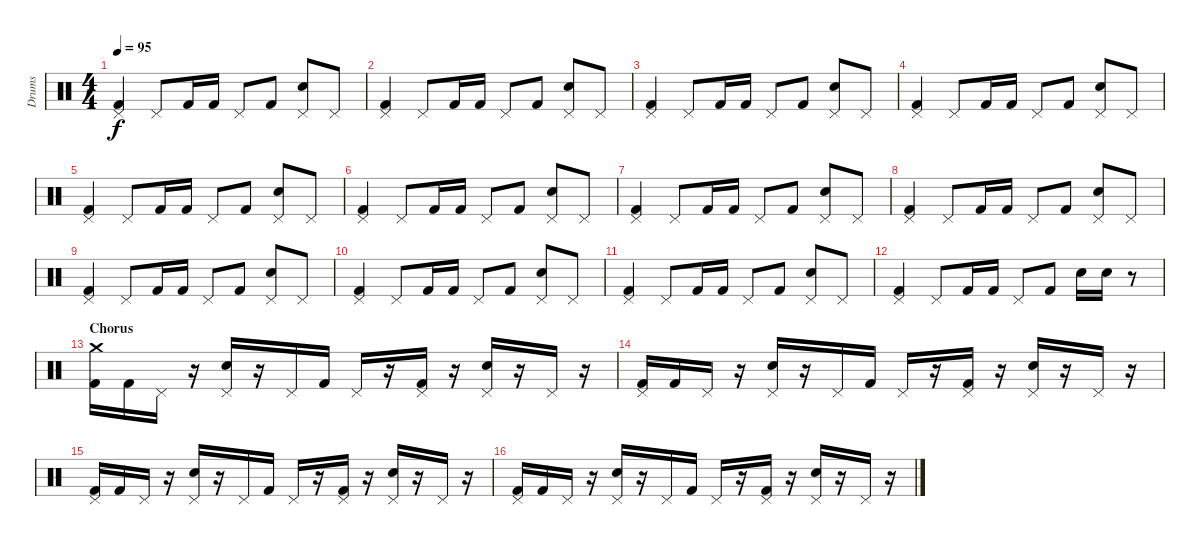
\track ("Drums" "Drums") {instrument percussion}
\staff {score}
\articulation defaults
\ts (4 4)
\tempo 95
\clef neutral
\ks c
("Pedal Hi-Hat (hit)" "Kick (hit) 2").4{dy f} "Pedal Hi-Hat (hit)".8 "Kick (hit) 2".16 "Kick (hit) 2".16 "Pedal Hi-Hat (hit)".8 "Kick (hit) 2".8 ("Pedal Hi-Hat (hit)" "Electric Snare (hit)").8 "Pedal Hi-Hat (hit)".8 |
("Pedal Hi-Hat (hit)" "Kick (hit) 2").4 "Pedal Hi-Hat (hit)".8 "Kick (hit) 2".16 "Kick (hit) 2".16 "Pedal Hi-Hat (hit)".8 "Kick (hit) 2".8 ("Pedal Hi-Hat (hit)" "Electric Snare (hit)").8 "Pedal Hi-Hat (hit)".8 |
("Pedal Hi-Hat (hit)" "Kick (hit) 2").4 "Pedal Hi-Hat (hit)".8 "Kick (hit) 2".16 "Kick (hit) 2".16 "Pedal Hi-Hat (hit)".8 "Kick (hit) 2".8 ("Pedal Hi-Hat (hit)" "Electric Snare (hit)").8 "Pedal Hi-Hat (hit)".8 |
("Pedal Hi-Hat (hit)" "Kick (hit) 2").4 "Pedal Hi-Hat (hit)".8 "Kick (hit) 2".16 "Kick (hit) 2".16 "Pedal Hi-Hat (hit)".8 "Kick (hit) 2".8 ("Pedal Hi-Hat (hit)" "Electric Snare (hit)").8 "Pedal Hi-Hat (hit)".8 |
("Pedal Hi-Hat (hit)" "Kick (hit) 2").4 "Pedal Hi-Hat (hit)".8 "Kick (hit) 2".16 "Kick (hit) 2".16 "Pedal Hi-Hat (hit)".8 "Kick (hit) 2".8 ("Pedal Hi-Hat (hit)" "Electric Snare (hit)").8 "Pedal Hi-Hat (hit)".8 |
("Pedal Hi-Hat (hit)" "Kick (hit) 2").4 "Pedal Hi-Hat (hit)".8 "Kick (hit) 2".16 "Kick (hit) 2".16 "Pedal Hi-Hat (hit)".8 "Kick (hit) 2".8 ("Pedal Hi-Hat (hit)" "Electric Snare (hit)").8 "Pedal Hi-Hat (hit)".8 |
("Pedal Hi-Hat (hit)" "Kick (hit) 2").4 "Pedal Hi-Hat (hit)".8 "Kick (hit) 2".16 "Kick (hit) 2".16 "Pedal Hi-Hat (hit)".8 "Kick (hit) 2".8 ("Pedal Hi-Hat (hit)" "Electric Snare (hit)").8 "Pedal Hi-Hat (hit)".8 |
("Pedal Hi-Hat (hit)" "Kick (hit) 2").4 "Pedal Hi-Hat (hit)".8 "Kick (hit) 2".16 "Kick (hit) 2".16 "Pedal Hi-Hat (hit)".8 "Kick (hit) 2".8 ("Pedal Hi-Hat (hit)" "Electric Snare (hit)").8 "Pedal Hi-Hat (hit)".8 |
("Pedal Hi-Hat (hit)" "Kick (hit) 2").4 "Pedal Hi-Hat (hit)".8 "Kick (hit) 2".16 "Kick (hit) 2".16 "Pedal Hi-Hat (hit)".8 "Kick (hit) 2".8 ("Pedal Hi-Hat (hit)" "Electric Snare (hit)").8 "Pedal Hi-Hat (hit)".8 |
("Pedal Hi-Hat (hit)" "Kick (hit) 2").4 "Pedal Hi-Hat (hit)".8 "Kick (hit) 2".16 "Kick (hit) 2".16 "Pedal Hi-Hat (hit)".8 "Kick (hit) 2".8 ("Pedal Hi-Hat (hit)" "Electric Snare (hit)").8 "Pedal Hi-Hat (hit)".8 |
("Pedal Hi-Hat (hit)" "Kick (hit) 2").4 "Pedal Hi-Hat (hit)".8 "Kick (hit) 2".16 "Kick (hit) 2".16 "Pedal Hi-Hat (hit)".8 "Kick (hit) 2".8 ("Pedal Hi-Hat (hit)" "Electric Snare (hit)").8 "Pedal Hi-Hat (hit)".8 |
("Pedal Hi-Hat (hit)" "Kick (hit) 2").4 "Pedal Hi-Hat (hit)".8 "Kick (hit) 2".16 "Kick (hit) 2".16 "Pedal Hi-Hat (hit)".8 "Kick (hit) 2".8 "Electric Snare (hit)".16 "Electric Snare (hit)".16 r.8 |
\section ("" "Chorus")
("Crash medium (hit)" "Kick (hit) 2").16 "Kick (hit) 2".16 "Pedal Hi-Hat (hit)".16 r.16 ("Pedal Hi-Hat (hit)" "Electric Snare (hit)").16 r.16 "Pedal Hi-Hat (hit)".16 "Kick (hit) 2".16 "Pedal Hi-Hat (hit)".16 r.16 ("Pedal Hi-Hat (hit)" "Kick (hit) 2").16 r.16 ("Pedal Hi-Hat (hit)" "Electric Snare (hit)").16 r.16 "Pedal Hi-Hat (hit)".16 r.16 |
("Pedal Hi-Hat (hit)" "Kick (hit) 2").16 "Kick (hit) 2".16 "Pedal Hi-Hat (hit)".16 r.16 ("Pedal Hi-Hat (hit)" "Electric Snare (hit)").16 r.16 "Pedal Hi-Hat (hit)".16 "Kick (hit) 2".16 "Pedal Hi-Hat (hit)".16 r.16 ("Pedal Hi-Hat (hit)" "Kick (hit) 2").16 r.16 ("Pedal Hi-Hat (hit)" "Electric Snare (hit)").16 r.16 "Pedal Hi-Hat (hit)".16 r.16 |
("Pedal Hi-Hat (hit)" "Kick (hit) 2").16 "Kick (hit) 2".16 "Pedal Hi-Hat (hit)".16 r.16 ("Pedal Hi-Hat (hit)" "Electric Snare (hit)").16 r.16 "Pedal Hi-Hat (hit)".16 "Kick (hit) 2".16 "Pedal Hi-Hat (hit)".16 r.16 ("Pedal Hi-Hat (hit)" "Kick (hit) 2").16 r.16 ("Pedal Hi-Hat (hit)" "Electric Snare (hit)").16 r.16 "Pedal Hi-Hat (hit)".16 r.16 |
("Pedal Hi-Hat (hit)" "Kick (hit) 2").16 "Kick (hit) 2".16 "Pedal Hi-Hat (hit)".16 r.16 ("Pedal Hi-Hat (hit)" "Electric Snare (hit)").16 r.16 "Pedal Hi-Hat (hit)".16 "Kick (hit) 2".16 "Pedal Hi-Hat (hit)".16 r.16 ("Pedal Hi-Hat (hit)" "Kick (hit) 2").16 r.16 ("Pedal Hi-Hat (hit)" "Electric Snare (hit)").16 r.16 "Pedal Hi-Hat (hit)".16 r.16
